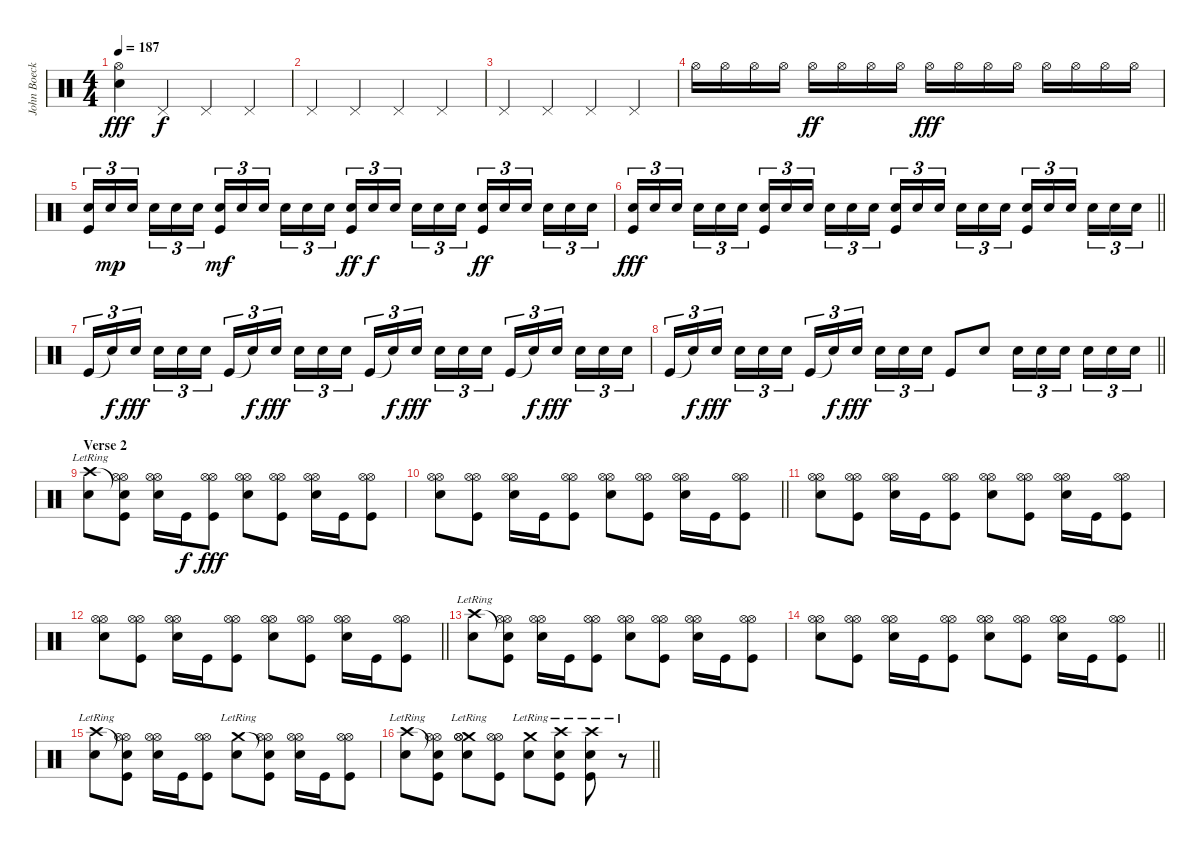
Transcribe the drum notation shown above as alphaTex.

\track ("John Boecklin - Drums" "John Boeck") {instrument percussion}
\staff {score}
\articulation defaults
\ts (4 4)
\tempo 187
\clef neutral
\ks c
("Snare (hit) 2" "Hi-Hat (open)").4{dy fff} "Pedal Hi-Hat (hit)".4{dy f} "Pedal Hi-Hat (hit)".4 "Pedal Hi-Hat (hit)".4 |
"Pedal Hi-Hat (hit)".4 "Pedal Hi-Hat (hit)".4 "Pedal Hi-Hat (hit)".4 "Pedal Hi-Hat (hit)".4 |
"Pedal Hi-Hat (hit)".4 "Pedal Hi-Hat (hit)".4 "Pedal Hi-Hat (hit)".4 "Pedal Hi-Hat (hit)".4 |
"Hi-Hat (open)".16 "Hi-Hat (open)".16 "Hi-Hat (open)".16 "Hi-Hat (open)".16 "Hi-Hat (open)".16{dy ff} "Hi-Hat (open)".16 "Hi-Hat (open)".16 "Hi-Hat (open)".16 "Hi-Hat (open)".16{dy fff} "Hi-Hat (open)".16 "Hi-Hat (open)".16 "Hi-Hat (open)".16 "Hi-Hat (open)".16 "Hi-Hat (open)".16 "Hi-Hat (open)".16 "Hi-Hat (open)".16 |
("Snare (hit) 2" "Kick (hit)").16{tu (3 2)} "Snare (hit) 2".16{tu (3 2) dy mp} "Snare (hit) 2".16{tu (3 2)} "Snare (hit) 2".16{tu (3 2)} "Snare (hit) 2".16{tu (3 2)} "Snare (hit) 2".16{tu (3 2)} ("Snare (hit) 2" "Kick (hit)").16{tu (3 2) dy mf} "Snare (hit) 2".16{tu (3 2)} "Snare (hit) 2".16{tu (3 2)} "Snare (hit) 2".16{tu (3 2)} "Snare (hit) 2".16{tu (3 2)} "Snare (hit) 2".16{tu (3 2)} ("Snare (hit) 2" "Kick (hit)").16{tu (3 2) dy ff} "Snare (hit) 2".16{tu (3 2) dy f} "Snare (hit) 2".16{tu (3 2)} "Snare (hit) 2".16{tu (3 2)} "Snare (hit) 2".16{tu (3 2)} "Snare (hit) 2".16{tu (3 2)} ("Snare (hit) 2" "Kick (hit)").16{tu (3 2) dy ff} "Snare (hit) 2".16{tu (3 2)} "Snare (hit) 2".16{tu (3 2)} "Snare (hit) 2".16{tu (3 2)} "Snare (hit) 2".16{tu (3 2)} "Snare (hit) 2".16{tu (3 2)} |
\barLineRight lightlight
("Snare (hit) 2" "Kick (hit)").16{tu (3 2) dy fff} "Snare (hit) 2".16{tu (3 2)} "Snare (hit) 2".16{tu (3 2)} "Snare (hit) 2".16{tu (3 2)} "Snare (hit) 2".16{tu (3 2)} "Snare (hit) 2".16{tu (3 2)} ("Snare (hit) 2" "Kick (hit)").16{tu (3 2)} "Snare (hit) 2".16{tu (3 2)} "Snare (hit) 2".16{tu (3 2)} "Snare (hit) 2".16{tu (3 2)} "Snare (hit) 2".16{tu (3 2)} "Snare (hit) 2".16{tu (3 2)} ("Snare (hit) 2" "Kick (hit)").16{tu (3 2)} "Snare (hit) 2".16{tu (3 2)} "Snare (hit) 2".16{tu (3 2)} "Snare (hit) 2".16{tu (3 2)} "Snare (hit) 2".16{tu (3 2)} "Snare (hit) 2".16{tu (3 2)} ("Snare (hit) 2" "Kick (hit)").16{tu (3 2)} "Snare (hit) 2".16{tu (3 2)} "Snare (hit) 2".16{tu (3 2)} "Snare (hit) 2".16{tu (3 2)} "Snare (hit) 2".16{tu (3 2)} "Snare (hit) 2".16{tu (3 2)} |
"Kick (hit)".16{tu (3 2)} "Snare (hit)"{t}.16{tu (3 2) dy f} "Snare (hit) 2".16{tu (3 2) dy fff} "Snare (hit) 2".16{tu (3 2)} "Snare (hit) 2".16{tu (3 2)} "Snare (hit) 2".16{tu (3 2)} "Kick (hit)".16{tu (3 2)} "Snare (hit)"{t}.16{tu (3 2) dy f} "Snare (hit) 2".16{tu (3 2) dy fff} "Snare (hit) 2".16{tu (3 2)} "Snare (hit) 2".16{tu (3 2)} "Snare (hit) 2".16{tu (3 2)} "Kick (hit)".16{tu (3 2)} "Snare (hit)"{t}.16{tu (3 2) dy f} "Snare (hit) 2".16{tu (3 2) dy fff} "Snare (hit) 2".16{tu (3 2)} "Snare (hit) 2".16{tu (3 2)} "Snare (hit) 2".16{tu (3 2)} "Kick (hit)".16{tu (3 2)} "Snare (hit)"{t}.16{tu (3 2) dy f} "Snare (hit) 2".16{tu (3 2) dy fff} "Snare (hit) 2".16{tu (3 2)} "Snare (hit) 2".16{tu (3 2)} "Snare (hit) 2".16{tu (3 2)} |
\barLineRight lightlight "Kick (hit)".16{tu (3 2)} "Snare (hit)"{t}.16{tu (3 2) dy f} "Snare (hit) 2".16{tu (3 2) dy fff} "Snare (hit) 2".16{tu (3 2)} "Snare (hit) 2".16{tu (3 2)} "Snare (hit) 2".16{tu (3 2)} "Kick (hit)".16{tu (3 2)} "Snare (hit)"{t}.16{tu (3 2) dy f} "Snare (hit) 2".16{tu (3 2) dy fff} "Snare (hit) 2".16{tu (3 2)} "Snare (hit) 2".16{tu (3 2)} "Snare (hit) 2".16{tu (3 2)} "Kick (hit)".8 "Snare (hit) 2".8 "Snare (hit) 2".16{tu (3 2)} "Snare (hit) 2".16{tu (3 2)} "Snare (hit) 2".16{tu (3 2)} "Snare (hit) 2".16{tu (3 2)} "Snare (hit) 2".16{tu (3 2)} "Snare (hit) 2".16{tu (3 2)}
|
\section ("" "Verse 2")
("Crash high (hit)"{lr} "Snare (hit) 2").8 ("Snare (hit)"{t} "Hi-Hat (open)" "Hi-Hat (open)" "Kick (hit)").8 ("Snare (hit) 2" "Hi-Hat (open)" "Hi-Hat (open)").16 "Kick (hit)".16{dy f} ("Hi-Hat (open)" "Hi-Hat (open)" "Kick (hit)").8{dy fff} ("Snare (hit) 2" "Hi-Hat (open)" "Hi-Hat (open)").8 ("Hi-Hat (open)" "Hi-Hat (open)" "Kick (hit)").8 ("Snare (hit) 2" "Hi-Hat (open)" "Hi-Hat (open)").16 "Kick (hit)".16 ("Hi-Hat (open)" "Hi-Hat (open)" "Kick (hit)").8 |
\barLineRight lightlight
("Snare (hit) 2" "Hi-Hat (open)" "Hi-Hat (open)").8 ("Hi-Hat (open)" "Hi-Hat (open)" "Kick (hit)").8 ("Snare (hit) 2" "Hi-Hat (open)" "Hi-Hat (open)").16 "Kick (hit)".16 ("Hi-Hat (open)" "Hi-Hat (open)" "Kick (hit)").8 ("Snare (hit) 2" "Hi-Hat (open)" "Hi-Hat (open)").8 ("Hi-Hat (open)" "Hi-Hat (open)" "Kick (hit)").8 ("Snare (hit) 2" "Hi-Hat (open)" "Hi-Hat (open)").16 "Kick (hit)".16 ("Hi-Hat (open)" "Hi-Hat (open)" "Kick (hit)").8 |
("Snare (hit) 2" "Hi-Hat (open)" "Hi-Hat (open)").8 ("Hi-Hat (open)" "Hi-Hat (open)" "Kick (hit)").8 ("Snare (hit) 2" "Hi-Hat (open)" "Hi-Hat (open)").16 "Kick (hit)".16 ("Hi-Hat (open)" "Hi-Hat (open)" "Kick (hit)").8 ("Snare (hit) 2" "Hi-Hat (open)" "Hi-Hat (open)").8 ("Hi-Hat (open)" "Hi-Hat (open)" "Kick (hit)").8 ("Snare (hit) 2" "Hi-Hat (open)" "Hi-Hat (open)").16 "Kick (hit)".16 ("Hi-Hat (open)" "Hi-Hat (open)" "Kick (hit)").8 |
\barLineRight lightlight
("Snare (hit) 2" "Hi-Hat (open)" "Hi-Hat (open)").8 ("Hi-Hat (open)" "Hi-Hat (open)" "Kick (hit)").8 ("Snare (hit) 2" "Hi-Hat (open)" "Hi-Hat (open)").16 "Kick (hit)".16 ("Hi-Hat (open)" "Hi-Hat (open)" "Kick (hit)").8 ("Snare (hit) 2" "Hi-Hat (open)" "Hi-Hat (open)").8 ("Hi-Hat (open)" "Hi-Hat (open)" "Kick (hit)").8 ("Snare (hit) 2" "Hi-Hat (open)" "Hi-Hat (open)").16 "Kick (hit)".16 ("Hi-Hat (open)" "Hi-Hat (open)" "Kick (hit)").8 |
("Crash high (hit)"{lr} "Snare (hit) 2").8 ("Snare (hit)"{t} "Hi-Hat (open)" "Hi-Hat (open)" "Kick (hit)").8 ("Snare (hit) 2" "Hi-Hat (open)" "Hi-Hat (open)").16 "Kick (hit)".16 ("Hi-Hat (open)" "Hi-Hat (open)" "Kick (hit)").8 ("Snare (hit) 2" "Hi-Hat (open)" "Hi-Hat (open)").8 ("Hi-Hat (open)" "Hi-Hat (open)" "Kick (hit)").8 ("Snare (hit) 2" "Hi-Hat (open)" "Hi-Hat (open)").16 "Kick (hit)".16 ("Hi-Hat (open)" "Hi-Hat (open)" "Kick (hit)").8 |
\barLineRight lightlight
("Snare (hit) 2" "Hi-Hat (open)" "Hi-Hat (open)").8 ("Hi-Hat (open)" "Hi-Hat (open)" "Kick (hit)").8 ("Snare (hit) 2" "Hi-Hat (open)" "Hi-Hat (open)").16 "Kick (hit)".16 ("Hi-Hat (open)" "Hi-Hat (open)" "Kick (hit)").8 ("Snare (hit) 2" "Hi-Hat (open)" "Hi-Hat (open)").8 ("Hi-Hat (open)" "Hi-Hat (open)" "Kick (hit)").8 ("Snare (hit) 2" "Hi-Hat (open)" "Hi-Hat (open)").16 "Kick (hit)".16 ("Hi-Hat (open)" "Hi-Hat (open)" "Kick (hit)").8 |
("Crash high (hit)"{lr} "Snare (hit) 2").8 ("Snare (hit)"{t} "Hi-Hat (open)" "Hi-Hat (open)" "Kick (hit)").8 ("Snare (hit) 2" "Hi-Hat (open)" "Hi-Hat (open)").16 "Kick (hit)".16 ("Hi-Hat (open)" "Hi-Hat (open)" "Kick (hit)").8 ("Crash medium (hit)"{lr} "Snare (hit) 2").8 ("Snare (hit)"{t} "Hi-Hat (open)" "Hi-Hat (open)" "Kick (hit)").8 ("Snare (hit) 2" "Hi-Hat (open)" "Hi-Hat (open)").16 "Kick (hit)".16 ("Hi-Hat (open)" "Hi-Hat (open)" "Kick (hit)").8 |
\barLineRight lightlight
("Crash high (hit)"{lr} "Snare (hit) 2").8 ("Snare (hit)"{t} "Hi-Hat (open)" "Hi-Hat (open)" "Kick (hit)").8 ("Crash medium (hit)"{lr} "Snare (hit) 2" "Hi-Hat (open)" "Hi-Hat (open)").8 ("Hi-Hat (open)" "Hi-Hat (open)" "Kick (hit)").8 ("Crash medium (hit)"{lr} "Snare (hit) 2").8 ("Crash high (hit)"{lr} "Snare (hit) 2" "Kick (hit)").8 ("Crash high (hit)"{lr} "Snare (hit) 2" "Kick (hit)").8 r.8
